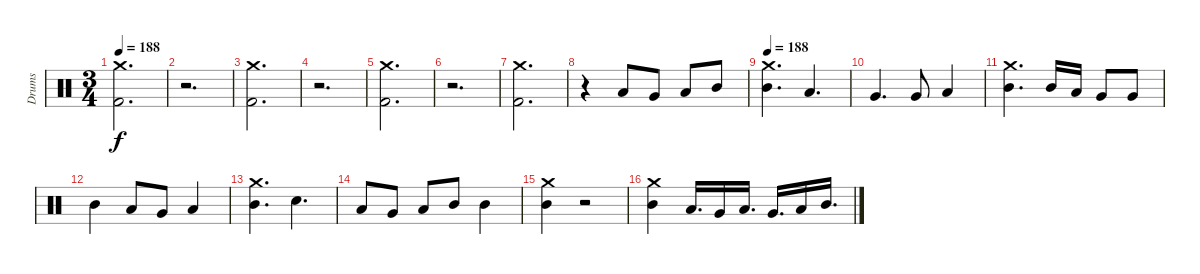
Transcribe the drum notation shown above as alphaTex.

\track ("Drums" "Drums") {instrument percussion}
\staff {score}
\articulation defaults
\ts (3 4)
\tempo 188
\clef neutral
\ks c
("Crash medium (hit)" "Kick (hit) 2").2{d dy f} |
r.2{d} |
("Crash medium (hit)" "Kick (hit) 2").2{d} |
r.2{d} |
("Crash medium (hit)" "Kick (hit) 2").2{d} |
r.2{d} |
("Crash medium (hit)" "Kick (hit) 2").2{d} |
r.4 "Low Floor Tom (hit)".8 "Very Low Tom (hit)".8 "Low Tom (hit)".8 "Mid Tom (hit)".8 |
\tempo 188
("Crash medium (hit)" "Mid Tom (hit)").4{d} "Low Tom (hit)".4{d} |
"Very Low Tom (hit)".4{d} "Very Low Tom (hit)".8 "Low Floor Tom (hit)".4 |
("Crash medium (hit)" "Mid Tom (hit)").4{d} "Mid Tom (hit)".16 "Low Tom (hit)".16 "Very Low Tom (hit)".8 "Very Low Tom (hit)".8 |
"Mid Tom (hit)".4 "Low Tom (hit)".8 "Very Low Tom (hit)".8 "Low Floor Tom (hit)".4 |
("Crash medium (hit)" "Mid Tom (hit)").4{d} "Electric Snare (hit)".4{d} |
"Low Floor Tom (hit)".8 "Very Low Tom (hit)".8 "Low Tom (hit)".8 "Mid Tom (hit)".8 "Mid Tom (hit)".4 |
("Crash medium (hit)" "Mid Tom (hit)").4 r.2 |
("Crash medium (hit)" "Mid Tom (hit)").4 "Low Floor Tom (hit)".16{d} "Very Low Tom (hit)".16 "Low Tom (hit)".16{d} "Very Low Tom (hit)".16{d} "Low Tom (hit)".16 "Mid Tom (hit)".16{d}
